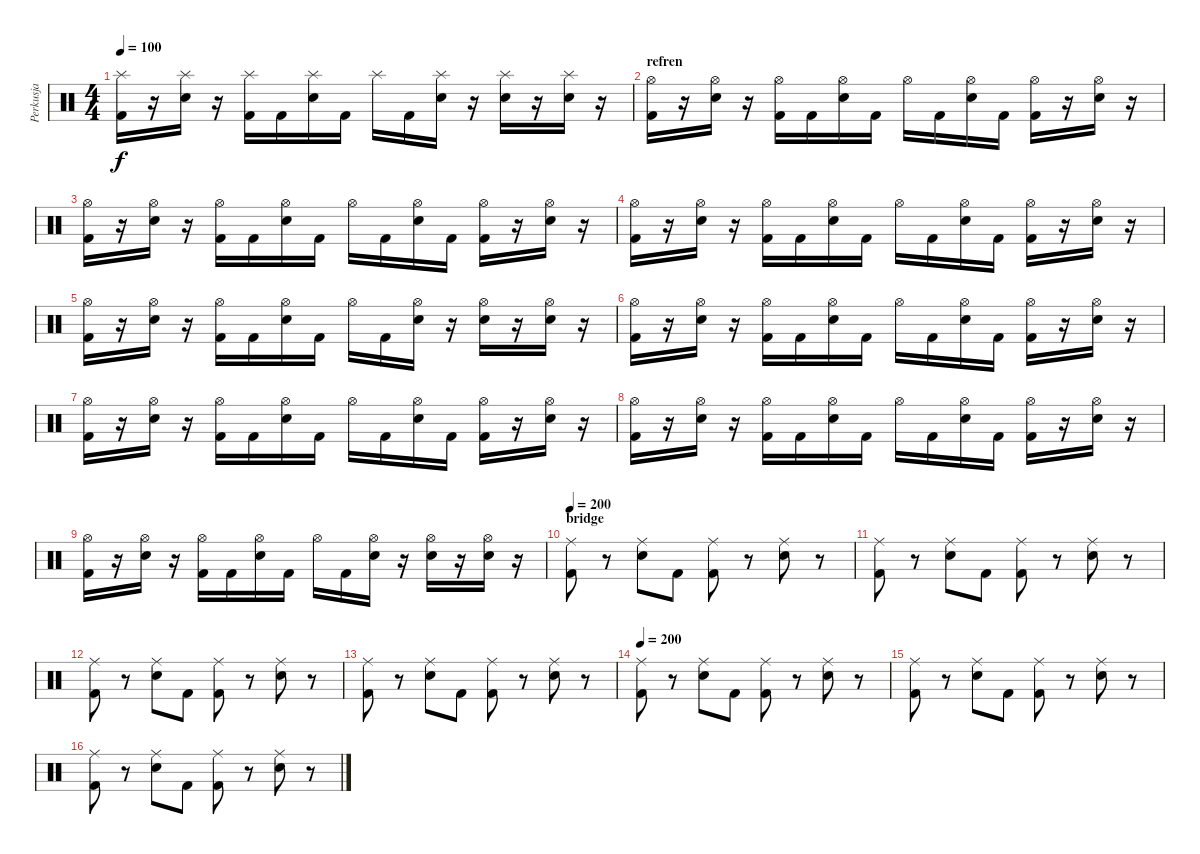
\track ("Perkusja" "Perkusja") {instrument percussion}
\staff {score}
\articulation defaults
\ts (4 4)
\tempo 100
\clef neutral
\ks c
("Splash (hit)" "Kick (hit) 2").16{dy f} r.16 ("Splash (hit)" "Snare (hit) 2").16 r.16 ("Splash (hit)" "Kick (hit) 2").16 "Kick (hit) 2".16 ("Splash (hit)" "Snare (hit) 2").16 "Kick (hit) 2".16 "Splash (hit)".16 "Kick (hit) 2".16 ("Splash (hit)" "Snare (hit) 2").16 r.16 ("Splash (hit)" "Snare (hit) 2").16 r.16 ("Splash (hit)" "Snare (hit) 2").16 r.16 |
\section ("" "refren")
("Hi-Hat (open)" "Kick (hit) 2").16 r.16 ("Hi-Hat (open)" "Snare (hit) 2").16 r.16 ("Hi-Hat (open)" "Kick (hit) 2").16 "Kick (hit) 2".16 ("Hi-Hat (open)" "Snare (hit) 2").16 "Kick (hit) 2".16 "Hi-Hat (open)".16 "Kick (hit) 2".16 ("Hi-Hat (open)" "Snare (hit) 2").16 "Kick (hit) 2".16 ("Hi-Hat (open)" "Kick (hit) 2").16 r.16 ("Hi-Hat (open)" "Snare (hit) 2").16 r.16 |
("Hi-Hat (open)" "Kick (hit) 2").16 r.16 ("Hi-Hat (open)" "Snare (hit) 2").16 r.16 ("Hi-Hat (open)" "Kick (hit) 2").16 "Kick (hit) 2".16 ("Hi-Hat (open)" "Snare (hit) 2").16 "Kick (hit) 2".16 "Hi-Hat (open)".16 "Kick (hit) 2".16 ("Hi-Hat (open)" "Snare (hit) 2").16 "Kick (hit) 2".16 ("Hi-Hat (open)" "Kick (hit) 2").16 r.16 ("Hi-Hat (open)" "Snare (hit) 2").16 r.16 |
("Hi-Hat (open)" "Kick (hit) 2").16 r.16 ("Hi-Hat (open)" "Snare (hit) 2").16 r.16 ("Hi-Hat (open)" "Kick (hit) 2").16 "Kick (hit) 2".16 ("Hi-Hat (open)" "Snare (hit) 2").16 "Kick (hit) 2".16 "Hi-Hat (open)".16 "Kick (hit) 2".16 ("Hi-Hat (open)" "Snare (hit) 2").16 "Kick (hit) 2".16 ("Hi-Hat (open)" "Kick (hit) 2").16 r.16 ("Hi-Hat (open)" "Snare (hit) 2").16 r.16 |
("Hi-Hat (open)" "Kick (hit) 2").16 r.16 ("Hi-Hat (open)" "Snare (hit) 2").16 r.16 ("Hi-Hat (open)" "Kick (hit) 2").16 "Kick (hit) 2".16 ("Hi-Hat (open)" "Snare (hit) 2").16 "Kick (hit) 2".16 "Hi-Hat (open)".16 "Kick (hit) 2".16 ("Hi-Hat (open)" "Snare (hit) 2").16 r.16 ("Hi-Hat (open)" "Snare (hit) 2").16 r.16 ("Hi-Hat (open)" "Snare (hit) 2").16 r.16 |
("Hi-Hat (open)" "Kick (hit) 2").16 r.16 ("Hi-Hat (open)" "Snare (hit) 2").16 r.16 ("Hi-Hat (open)" "Kick (hit) 2").16 "Kick (hit) 2".16 ("Hi-Hat (open)" "Snare (hit) 2").16 "Kick (hit) 2".16 "Hi-Hat (open)".16 "Kick (hit) 2".16 ("Hi-Hat (open)" "Snare (hit) 2").16 "Kick (hit) 2".16 ("Hi-Hat (open)" "Kick (hit) 2").16 r.16 ("Hi-Hat (open)" "Snare (hit) 2").16 r.16 |
("Hi-Hat (open)" "Kick (hit) 2").16 r.16 ("Hi-Hat (open)" "Snare (hit) 2").16 r.16 ("Hi-Hat (open)" "Kick (hit) 2").16 "Kick (hit) 2".16 ("Hi-Hat (open)" "Snare (hit) 2").16 "Kick (hit) 2".16 "Hi-Hat (open)".16 "Kick (hit) 2".16 ("Hi-Hat (open)" "Snare (hit) 2").16 "Kick (hit) 2".16 ("Hi-Hat (open)" "Kick (hit) 2").16 r.16 ("Hi-Hat (open)" "Snare (hit) 2").16 r.16 |
("Hi-Hat (open)" "Kick (hit) 2").16 r.16 ("Hi-Hat (open)" "Snare (hit) 2").16 r.16 ("Hi-Hat (open)" "Kick (hit) 2").16 "Kick (hit) 2".16 ("Hi-Hat (open)" "Snare (hit) 2").16 "Kick (hit) 2".16 "Hi-Hat (open)".16 "Kick (hit) 2".16 ("Hi-Hat (open)" "Snare (hit) 2").16 "Kick (hit) 2".16 ("Hi-Hat (open)" "Kick (hit) 2").16 r.16 ("Hi-Hat (open)" "Snare (hit) 2").16 r.16 |
("Hi-Hat (open)" "Kick (hit) 2").16 r.16 ("Hi-Hat (open)" "Snare (hit) 2").16 r.16 ("Hi-Hat (open)" "Kick (hit) 2").16 "Kick (hit) 2".16 ("Hi-Hat (open)" "Snare (hit) 2").16 "Kick (hit) 2".16 "Hi-Hat (open)".16 "Kick (hit) 2".16 ("Hi-Hat (open)" "Snare (hit) 2").16 r.16 ("Hi-Hat (open)" "Snare (hit) 2").16 r.16 ("Hi-Hat (open)" "Snare (hit) 2").16 r.16 |
\section ("" "bridge")
\tempo 200
("Ride (middle)" "Kick (hit) 2").8 r.8 ("Ride (middle)" "Snare (hit) 2").8 "Kick (hit) 2".8 ("Ride (middle)" "Kick (hit) 2").8 r.8 ("Ride (middle)" "Snare (hit) 2").8 r.8 |
("Ride (middle)" "Kick (hit) 2").8 r.8 ("Ride (middle)" "Snare (hit) 2").8 "Kick (hit) 2".8 ("Ride (middle)" "Kick (hit) 2").8 r.8 ("Ride (middle)" "Snare (hit) 2").8 r.8 |
("Ride (middle)" "Kick (hit) 2").8 r.8 ("Ride (middle)" "Snare (hit) 2").8 "Kick (hit) 2".8 ("Ride (middle)" "Kick (hit) 2").8 r.8 ("Ride (middle)" "Snare (hit) 2").8 r.8 |
("Ride (middle)" "Kick (hit) 2").8 r.8 ("Ride (middle)" "Snare (hit) 2").8 "Kick (hit) 2".8 ("Ride (middle)" "Kick (hit) 2").8 r.8 ("Ride (middle)" "Snare (hit) 2").8 r.8 |
\tempo 200
("Ride (middle)" "Kick (hit) 2").8 r.8 ("Ride (middle)" "Snare (hit) 2").8 "Kick (hit) 2".8 ("Ride (middle)" "Kick (hit) 2").8 r.8 ("Ride (middle)" "Snare (hit) 2").8 r.8 |
("Ride (middle)" "Kick (hit) 2").8 r.8 ("Ride (middle)" "Snare (hit) 2").8 "Kick (hit) 2".8 ("Ride (middle)" "Kick (hit) 2").8 r.8 ("Ride (middle)" "Snare (hit) 2").8 r.8 |
("Ride (middle)" "Kick (hit) 2").8 r.8 ("Ride (middle)" "Snare (hit) 2").8 "Kick (hit) 2".8 ("Ride (middle)" "Kick (hit) 2").8 r.8 ("Ride (middle)" "Snare (hit) 2").8 r.8
